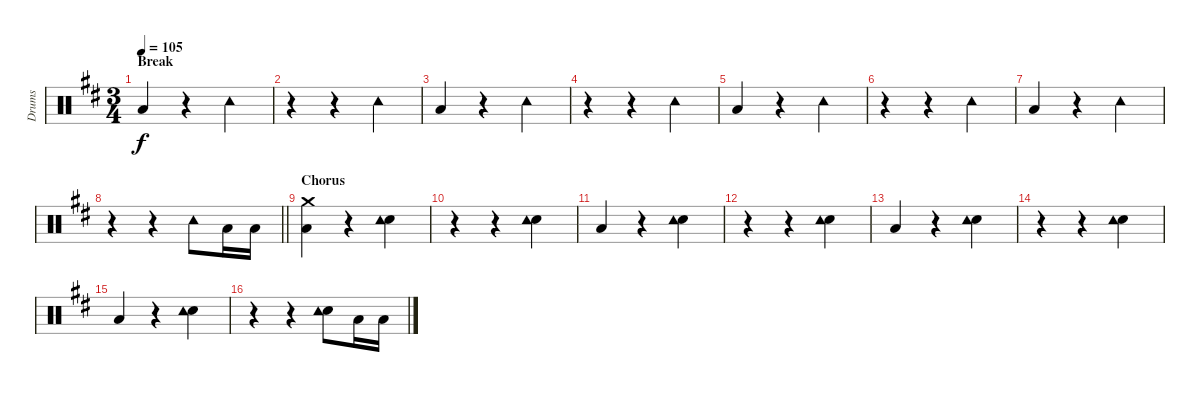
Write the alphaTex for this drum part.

\track ("Drums" "Drums") {instrument percussion}
\staff {score}
\articulation defaults
\ts (3 4)
\section ("" "Break")
\tempo 105
\clef neutral
\ks d "Low Floor Tom (hit)".4{dy f}
r.4 "Tambourine (hit)".4 |
r.4 r.4 "Tambourine (hit)".4 |
"Low Floor Tom (hit)".4 r.4 "Tambourine (hit)".4 |
r.4 r.4 "Tambourine (hit)".4 |
"Low Floor Tom (hit)".4 r.4 "Tambourine (hit)".4 |
r.4 r.4 "Tambourine (hit)".4 |
"Low Floor Tom (hit)".4 r.4 "Tambourine (hit)".4 |
\barLineRight lightlight
r.4 r.4 "Tambourine (hit)".8 "Low Floor Tom (hit)".16 "Low Floor Tom (hit)".16 |
\section ("" "Chorus")
("Crash medium (hit)" "Low Floor Tom (hit)").4 r.4 ("Snare (hit) 2" "Tambourine (hit)").4 |
r.4 r.4 ("Snare (hit) 2" "Tambourine (hit)").4 |
"Low Floor Tom (hit)".4 r.4 ("Snare (hit) 2" "Tambourine (hit)").4 |
r.4 r.4 ("Snare (hit) 2" "Tambourine (hit)").4 |
"Low Floor Tom (hit)".4 r.4 ("Snare (hit) 2" "Tambourine (hit)").4 |
r.4 r.4 ("Snare (hit) 2" "Tambourine (hit)").4 |
"Low Floor Tom (hit)".4 r.4 ("Snare (hit) 2" "Tambourine (hit)").4 |
r.4 r.4 ("Snare (hit) 2" "Tambourine (hit)").8 "Low Floor Tom (hit)".16 "Low Floor Tom (hit)".16
